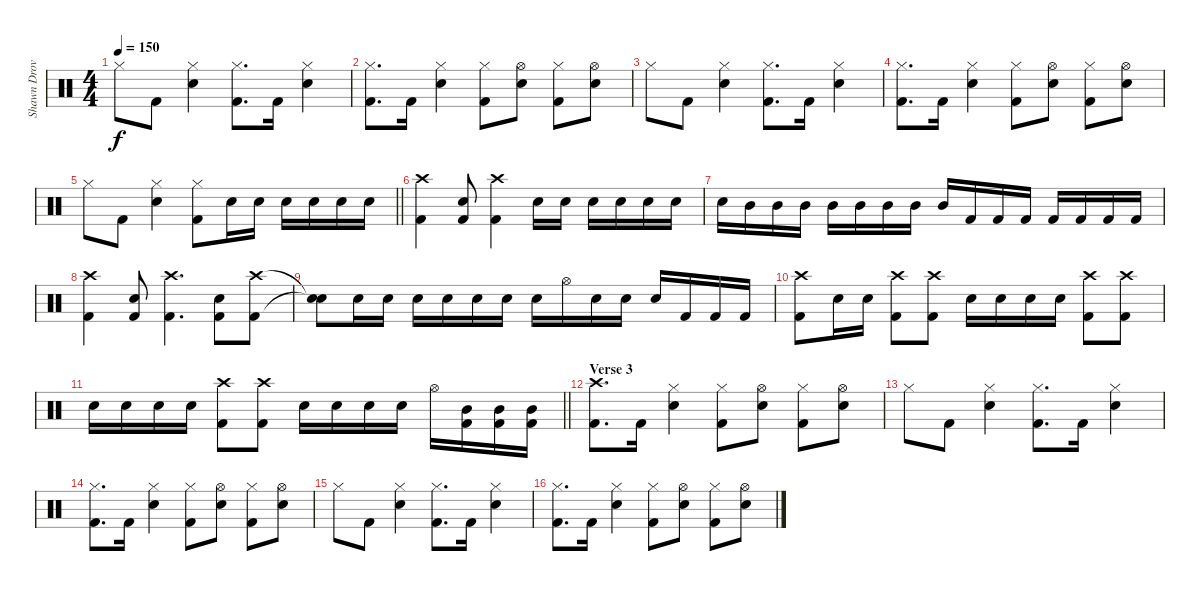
\track ("Shawn Drover" "Shawn Drov") {instrument percussion}
\staff {score}
\articulation defaults
\ts (4 4)
\tempo 150
\clef neutral
\ks c "Hi-Hat (closed)".8{dy f} "Kick (hit) 2".8
("Hi-Hat (closed)" "Snare (hit) 2").4 ("Hi-Hat (closed)" "Kick (hit) 2").8{d} "Kick (hit) 2".16 ("Hi-Hat (closed)" "Snare (hit) 2").4 |
("Hi-Hat (closed)" "Kick (hit) 2").8{d} "Kick (hit) 2".16 ("Hi-Hat (closed)" "Snare (hit) 2").4 ("Hi-Hat (closed)" "Kick (hit) 2").8 ("Hi-Hat (open)" "Snare (hit) 2").8 ("Hi-Hat (closed)" "Kick (hit) 2").8 ("Hi-Hat (open)" "Snare (hit) 2").8 |
"Hi-Hat (closed)".8 "Kick (hit) 2".8 ("Hi-Hat (closed)" "Snare (hit) 2").4 ("Hi-Hat (closed)" "Kick (hit) 2").8{d} "Kick (hit) 2".16 ("Hi-Hat (closed)" "Snare (hit) 2").4 |
("Hi-Hat (closed)" "Kick (hit) 2").8{d} "Kick (hit) 2".16 ("Hi-Hat (closed)" "Snare (hit) 2").4 ("Hi-Hat (closed)" "Kick (hit) 2").8 ("Hi-Hat (open)" "Snare (hit) 2").8 ("Hi-Hat (closed)" "Kick (hit) 2").8 ("Hi-Hat (open)" "Snare (hit) 2").8 |
\barLineRight lightlight "Hi-Hat (closed)".8 "Kick (hit) 2".8
("Hi-Hat (closed)" "Snare (hit) 2").4 ("Hi-Hat (closed)" "Kick (hit) 2").8 "Snare (hit) 2".16 "Snare (hit) 2".16 "Snare (hit) 2".16 "Snare (hit) 2".16 "Snare (hit) 2".16 "Snare (hit) 2".16 |
("Crash high (hit)" "Kick (hit) 2").4 ("Snare (hit) 2" "Kick (hit) 2").8 ("Crash high (hit)" "Kick (hit) 2").4 "Snare (hit) 2".16 "Snare (hit) 2".16 "Snare (hit) 2".16 "Snare (hit) 2".16 "Snare (hit) 2".16 "Snare (hit) 2".16 |
"Snare (hit) 2".16 "Mid Tom (hit)".16 "Mid Tom (hit)".16 "Mid Tom (hit)".16 "Mid Tom (hit)".16 "Mid Tom (hit)".16 "Mid Tom (hit)".16 "Mid Tom (hit)".16 "Mid Tom (hit)".16 "Kick (hit) 2".16 "Kick (hit) 2".16 "Kick (hit) 2".16 "Kick (hit) 2".16 "Kick (hit) 2".16 "Kick (hit) 2".16 "Kick (hit) 2".16 |
("Crash high (hit)" "Kick (hit) 2").4 ("Snare (hit) 2" "Kick (hit) 2").8 ("Crash high (hit)" "Kick (hit) 2").4{d} ("Snare (hit) 2" "Kick (hit) 2").8 ("Crash high (hit)" "Kick (hit) 2").8 |
("Snare (hit)"{t} "Snare (hit)"{t}).8 "Snare (hit) 2".16 "Snare (hit) 2".16 "Snare (hit) 2".16 "Snare (hit) 2".16 "Snare (hit) 2".16 "Snare (hit) 2".16 "Snare (hit) 2".16 "Hi-Hat (open)".16 "Snare (hit) 2".16 "Snare (hit) 2".16 "Snare (hit) 2".16 "Kick (hit) 2".16 "Kick (hit) 2".16 "Kick (hit) 2".16 |
("Crash high (hit)" "Kick (hit) 2").8 "Snare (hit) 2".16 "Snare (hit) 2".16 ("Crash high (hit)" "Kick (hit) 2").8 ("Crash high (hit)" "Kick (hit) 2").8 "Snare (hit) 2".16 "Snare (hit) 2".16 "Snare (hit) 2".16 "Snare (hit) 2".16 ("Crash high (hit)" "Kick (hit) 2").8 ("Crash high (hit)" "Kick (hit) 2").8 |
\barLineRight lightlight "Snare (hit) 2".16 "Snare (hit) 2".16 "Snare (hit) 2".16 "Snare (hit) 2".16
("Crash high (hit)" "Kick (hit) 2").8 ("Crash high (hit)" "Kick (hit) 2").8 "Snare (hit) 2".16 "Snare (hit) 2".16 "Snare (hit) 2".16 "Snare (hit) 2".16 "Hi-Hat (open)".16 ("Mid Tom (hit)" "Kick (hit) 2").16 ("Mid Tom (hit)" "Kick (hit) 2").16 ("Mid Tom (hit)" "Kick (hit) 2").16 |
\section ("" "Verse 3")
("Crash high (hit)" "Kick (hit) 2").8{d} "Kick (hit) 2".16 ("Hi-Hat (closed)" "Snare (hit) 2").4 ("Hi-Hat (closed)" "Kick (hit) 2").8 ("Hi-Hat (open)" "Snare (hit) 2").8 ("Hi-Hat (closed)" "Kick (hit) 2").8 ("Hi-Hat (open)" "Snare (hit) 2").8 |
"Hi-Hat (closed)".8 "Kick (hit) 2".8 ("Hi-Hat (closed)" "Snare (hit) 2").4 ("Hi-Hat (closed)" "Kick (hit) 2").8{d} "Kick (hit) 2".16 ("Hi-Hat (closed)" "Snare (hit) 2").4 |
("Hi-Hat (closed)" "Kick (hit) 2").8{d} "Kick (hit) 2".16 ("Hi-Hat (closed)" "Snare (hit) 2").4 ("Hi-Hat (closed)" "Kick (hit) 2").8 ("Hi-Hat (open)" "Snare (hit) 2").8 ("Hi-Hat (closed)" "Kick (hit) 2").8 ("Hi-Hat (open)" "Snare (hit) 2").8 |
"Hi-Hat (closed)".8 "Kick (hit) 2".8 ("Hi-Hat (closed)" "Snare (hit) 2").4 ("Hi-Hat (closed)" "Kick (hit) 2").8{d} "Kick (hit) 2".16 ("Hi-Hat (closed)" "Snare (hit) 2").4 |
("Hi-Hat (closed)" "Kick (hit) 2").8{d} "Kick (hit) 2".16 ("Hi-Hat (closed)" "Snare (hit) 2").4 ("Hi-Hat (closed)" "Kick (hit) 2").8 ("Hi-Hat (open)" "Snare (hit) 2").8 ("Hi-Hat (closed)" "Kick (hit) 2").8 ("Hi-Hat (open)" "Snare (hit) 2").8
